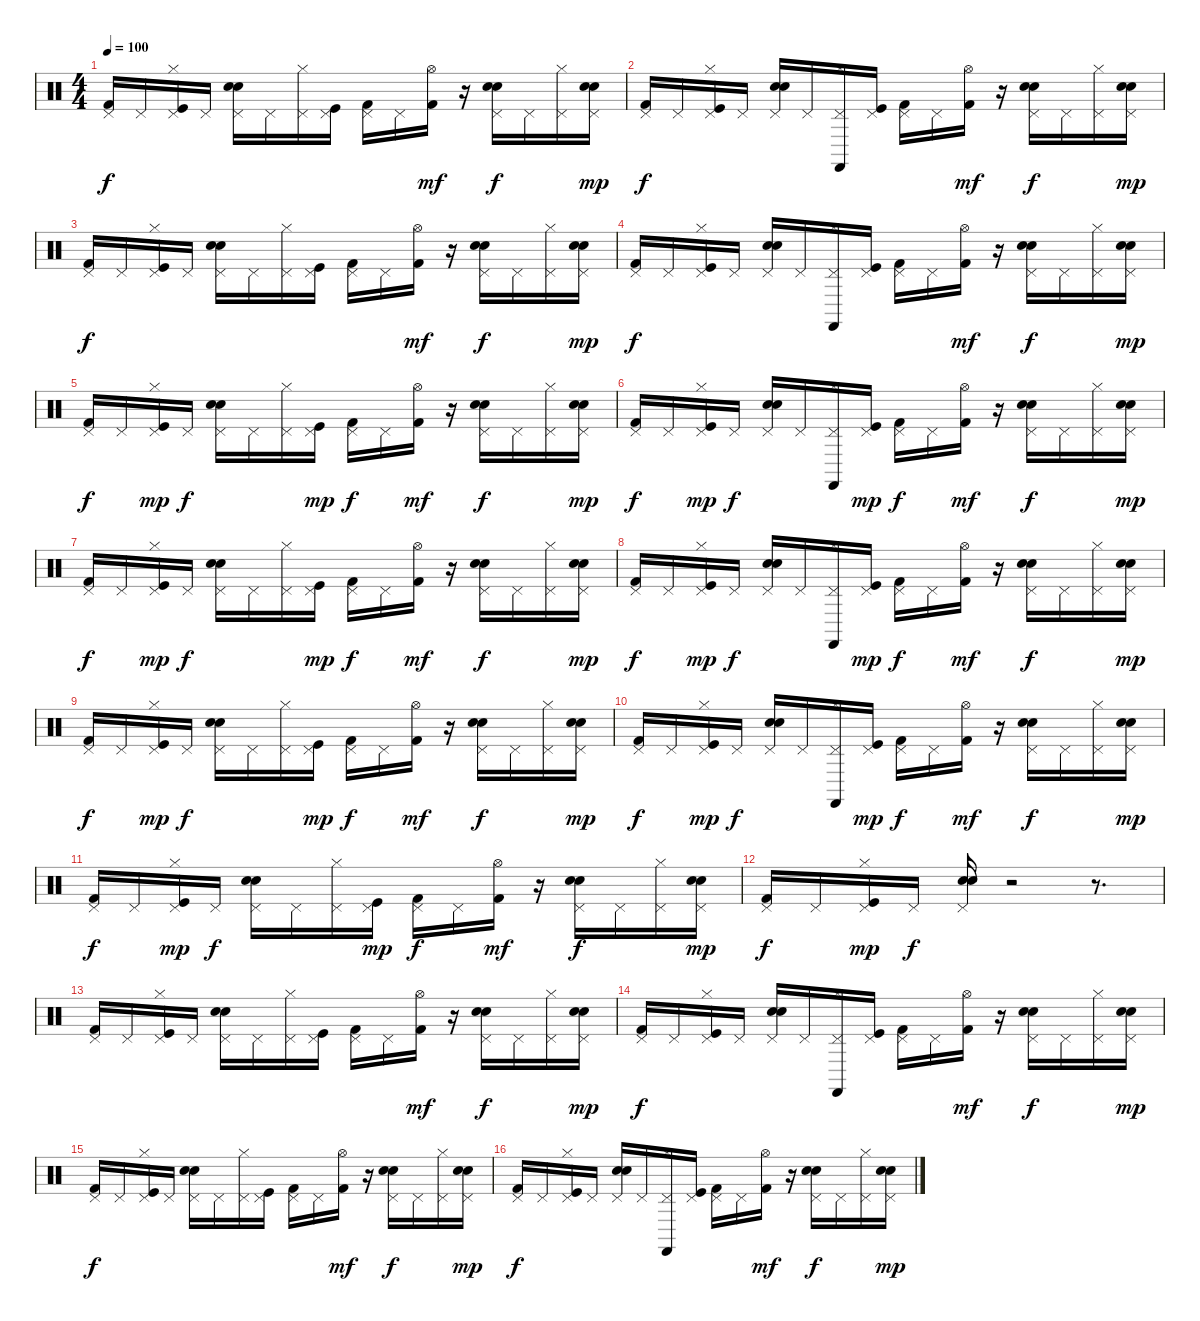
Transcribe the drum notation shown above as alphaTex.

\track "" {instrument percussion}
\staff {score}
\articulation defaults
\ts (4 4)
\tempo 100
\clef neutral
\ks c
("Pedal Hi-Hat (hit)" "Kick (hit) 2").16{dy f} "Pedal Hi-Hat (hit)".16 ("Hi-Hat (closed)" "Pedal Hi-Hat (hit)" "Kick (hit)").16 "Pedal Hi-Hat (hit)".16 ("Snare (hit) 2" "Electric Snare (hit)" "Pedal Hi-Hat (hit)").16 "Pedal Hi-Hat (hit)".16 ("Hi-Hat (closed)" "Pedal Hi-Hat (hit)").16 ("Pedal Hi-Hat (hit)" "Kick (hit)").16 ("Pedal Hi-Hat (hit)" "Kick (hit) 2").16 "Pedal Hi-Hat (hit)".16 ("Hi-Hat (open)" "Kick (hit) 2").16{dy mf} r.16 ("Snare (hit) 2" "Electric Snare (hit)" "Pedal Hi-Hat (hit)").16{dy f} "Pedal Hi-Hat (hit)".16 ("Hi-Hat (closed)" "Pedal Hi-Hat (hit)").16 ("Pedal Hi-Hat (hit)" "Electric Snare (hit)" "Snare (hit) 2").16{dy mp} |
("Pedal Hi-Hat (hit)" "Kick (hit) 2").16{dy f} "Pedal Hi-Hat (hit)".16 ("Hi-Hat (closed)" "Pedal Hi-Hat (hit)" "Kick (hit)").16 "Pedal Hi-Hat (hit)".16 ("Snare (hit) 2" "Electric Snare (hit)" "Pedal Hi-Hat (hit)").16 "Pedal Hi-Hat (hit)".16 ("Castanets (hit)" "Hi-Hat (closed)" "Pedal Hi-Hat (hit)").16 ("Pedal Hi-Hat (hit)" "Kick (hit)").16 ("Pedal Hi-Hat (hit)" "Kick (hit) 2").16 "Pedal Hi-Hat (hit)".16 ("Hi-Hat (open)" "Kick (hit) 2").16{dy mf} r.16 ("Snare (hit) 2" "Electric Snare (hit)" "Pedal Hi-Hat (hit)").16{dy f} "Pedal Hi-Hat (hit)".16 ("Hi-Hat (closed)" "Pedal Hi-Hat (hit)").16 ("Pedal Hi-Hat (hit)" "Snare (hit) 2" "Electric Snare (hit)").16{dy mp} |
("Pedal Hi-Hat (hit)" "Kick (hit) 2").16{dy f} "Pedal Hi-Hat (hit)".16 ("Hi-Hat (closed)" "Pedal Hi-Hat (hit)" "Kick (hit)").16 "Pedal Hi-Hat (hit)".16 ("Snare (hit) 2" "Electric Snare (hit)" "Pedal Hi-Hat (hit)").16 "Pedal Hi-Hat (hit)".16 ("Hi-Hat (closed)" "Pedal Hi-Hat (hit)").16 ("Pedal Hi-Hat (hit)" "Kick (hit)").16 ("Pedal Hi-Hat (hit)" "Kick (hit) 2").16 "Pedal Hi-Hat (hit)".16 ("Hi-Hat (open)" "Kick (hit) 2").16{dy mf} r.16 ("Snare (hit) 2" "Electric Snare (hit)" "Pedal Hi-Hat (hit)").16{dy f} "Pedal Hi-Hat (hit)".16 ("Hi-Hat (closed)" "Pedal Hi-Hat (hit)").16 ("Pedal Hi-Hat (hit)" "Snare (hit) 2" "Electric Snare (hit)").16{dy mp} |
("Pedal Hi-Hat (hit)" "Kick (hit) 2").16{dy f} "Pedal Hi-Hat (hit)".16 ("Hi-Hat (closed)" "Pedal Hi-Hat (hit)" "Kick (hit)").16 "Pedal Hi-Hat (hit)".16 ("Snare (hit) 2" "Electric Snare (hit)" "Pedal Hi-Hat (hit)").16 "Pedal Hi-Hat (hit)".16 ("Castanets (hit)" "Hi-Hat (closed)" "Pedal Hi-Hat (hit)").16 ("Pedal Hi-Hat (hit)" "Kick (hit)").16 ("Pedal Hi-Hat (hit)" "Kick (hit) 2").16 "Pedal Hi-Hat (hit)".16 ("Hi-Hat (open)" "Kick (hit) 2").16{dy mf} r.16 ("Snare (hit) 2" "Electric Snare (hit)" "Pedal Hi-Hat (hit)").16{dy f} "Pedal Hi-Hat (hit)".16 ("Hi-Hat (closed)" "Pedal Hi-Hat (hit)").16 ("Pedal Hi-Hat (hit)" "Snare (hit) 2" "Electric Snare (hit)").16{dy mp} |
("Pedal Hi-Hat (hit)" "Kick (hit) 2").16{dy f} "Pedal Hi-Hat (hit)".16 ("Hi-Hat (closed)" "Pedal Hi-Hat (hit)" "Kick (hit)").16{dy mp} "Pedal Hi-Hat (hit)".16{dy f} ("Snare (hit) 2" "Electric Snare (hit)" "Pedal Hi-Hat (hit)").16 "Pedal Hi-Hat (hit)".16 ("Hi-Hat (closed)" "Pedal Hi-Hat (hit)").16 ("Pedal Hi-Hat (hit)" "Kick (hit)").16{dy mp} ("Pedal Hi-Hat (hit)" "Kick (hit) 2").16{dy f} "Pedal Hi-Hat (hit)".16 ("Hi-Hat (open)" "Kick (hit) 2").16{dy mf} r.16 ("Snare (hit) 2" "Electric Snare (hit)" "Pedal Hi-Hat (hit)").16{dy f} "Pedal Hi-Hat (hit)".16 ("Hi-Hat (closed)" "Pedal Hi-Hat (hit)").16 ("Pedal Hi-Hat (hit)" "Electric Snare (hit)" "Snare (hit) 2").16{dy mp} |
("Pedal Hi-Hat (hit)" "Kick (hit) 2").16{dy f} "Pedal Hi-Hat (hit)".16 ("Hi-Hat (closed)" "Pedal Hi-Hat (hit)" "Kick (hit)").16{dy mp} "Pedal Hi-Hat (hit)".16{dy f} ("Snare (hit) 2" "Electric Snare (hit)" "Pedal Hi-Hat (hit)").16 "Pedal Hi-Hat (hit)".16 ("Castanets (hit)" "Hi-Hat (closed)" "Pedal Hi-Hat (hit)").16 ("Pedal Hi-Hat (hit)" "Kick (hit)").16{dy mp} ("Pedal Hi-Hat (hit)" "Kick (hit) 2").16{dy f} "Pedal Hi-Hat (hit)".16 ("Hi-Hat (open)" "Kick (hit) 2").16{dy mf} r.16 ("Snare (hit) 2" "Electric Snare (hit)" "Pedal Hi-Hat (hit)").16{dy f} "Pedal Hi-Hat (hit)".16 ("Hi-Hat (closed)" "Pedal Hi-Hat (hit)").16 ("Pedal Hi-Hat (hit)" "Snare (hit) 2" "Electric Snare (hit)").16{dy mp} |
("Pedal Hi-Hat (hit)" "Kick (hit) 2").16{dy f} "Pedal Hi-Hat (hit)".16 ("Hi-Hat (closed)" "Pedal Hi-Hat (hit)" "Kick (hit)").16{dy mp} "Pedal Hi-Hat (hit)".16{dy f} ("Snare (hit) 2" "Electric Snare (hit)" "Pedal Hi-Hat (hit)").16 "Pedal Hi-Hat (hit)".16 ("Hi-Hat (closed)" "Pedal Hi-Hat (hit)").16 ("Pedal Hi-Hat (hit)" "Kick (hit)").16{dy mp} ("Pedal Hi-Hat (hit)" "Kick (hit) 2").16{dy f} "Pedal Hi-Hat (hit)".16 ("Hi-Hat (open)" "Kick (hit) 2").16{dy mf} r.16 ("Snare (hit) 2" "Electric Snare (hit)" "Pedal Hi-Hat (hit)").16{dy f} "Pedal Hi-Hat (hit)".16 ("Hi-Hat (closed)" "Pedal Hi-Hat (hit)").16 ("Pedal Hi-Hat (hit)" "Electric Snare (hit)" "Snare (hit) 2").16{dy mp} |
("Pedal Hi-Hat (hit)" "Kick (hit) 2").16{dy f} "Pedal Hi-Hat (hit)".16 ("Hi-Hat (closed)" "Pedal Hi-Hat (hit)" "Kick (hit)").16{dy mp} "Pedal Hi-Hat (hit)".16{dy f} ("Snare (hit) 2" "Electric Snare (hit)" "Pedal Hi-Hat (hit)").16 "Pedal Hi-Hat (hit)".16 ("Castanets (hit)" "Hi-Hat (closed)" "Pedal Hi-Hat (hit)").16 ("Pedal Hi-Hat (hit)" "Kick (hit)").16{dy mp} ("Pedal Hi-Hat (hit)" "Kick (hit) 2").16{dy f} "Pedal Hi-Hat (hit)".16 ("Hi-Hat (open)" "Kick (hit) 2").16{dy mf} r.16 ("Snare (hit) 2" "Electric Snare (hit)" "Pedal Hi-Hat (hit)").16{dy f} "Pedal Hi-Hat (hit)".16 ("Hi-Hat (closed)" "Pedal Hi-Hat (hit)").16 ("Pedal Hi-Hat (hit)" "Snare (hit) 2" "Electric Snare (hit)").16{dy mp} |
("Pedal Hi-Hat (hit)" "Kick (hit) 2").16{dy f} "Pedal Hi-Hat (hit)".16 ("Hi-Hat (closed)" "Pedal Hi-Hat (hit)" "Kick (hit)").16{dy mp} "Pedal Hi-Hat (hit)".16{dy f} ("Snare (hit) 2" "Electric Snare (hit)" "Pedal Hi-Hat (hit)").16 "Pedal Hi-Hat (hit)".16 ("Hi-Hat (closed)" "Pedal Hi-Hat (hit)").16 ("Pedal Hi-Hat (hit)" "Kick (hit)").16{dy mp} ("Pedal Hi-Hat (hit)" "Kick (hit) 2").16{dy f} "Pedal Hi-Hat (hit)".16 ("Hi-Hat (open)" "Kick (hit) 2").16{dy mf} r.16 ("Snare (hit) 2" "Electric Snare (hit)" "Pedal Hi-Hat (hit)").16{dy f} "Pedal Hi-Hat (hit)".16 ("Hi-Hat (closed)" "Pedal Hi-Hat (hit)").16 ("Pedal Hi-Hat (hit)" "Electric Snare (hit)" "Snare (hit) 2").16{dy mp} |
("Pedal Hi-Hat (hit)" "Kick (hit) 2").16{dy f} "Pedal Hi-Hat (hit)".16 ("Hi-Hat (closed)" "Pedal Hi-Hat (hit)" "Kick (hit)").16{dy mp} "Pedal Hi-Hat (hit)".16{dy f} ("Snare (hit) 2" "Electric Snare (hit)" "Pedal Hi-Hat (hit)").16 "Pedal Hi-Hat (hit)".16 ("Castanets (hit)" "Hi-Hat (closed)" "Pedal Hi-Hat (hit)").16 ("Pedal Hi-Hat (hit)" "Kick (hit)").16{dy mp} ("Pedal Hi-Hat (hit)" "Kick (hit) 2").16{dy f} "Pedal Hi-Hat (hit)".16 ("Hi-Hat (open)" "Kick (hit) 2").16{dy mf} r.16 ("Snare (hit) 2" "Electric Snare (hit)" "Pedal Hi-Hat (hit)").16{dy f} "Pedal Hi-Hat (hit)".16 ("Hi-Hat (closed)" "Pedal Hi-Hat (hit)").16 ("Pedal Hi-Hat (hit)" "Snare (hit) 2" "Electric Snare (hit)").16{dy mp} |
("Pedal Hi-Hat (hit)" "Kick (hit) 2").16{dy f} "Pedal Hi-Hat (hit)".16 ("Hi-Hat (closed)" "Pedal Hi-Hat (hit)" "Kick (hit)").16{dy mp} "Pedal Hi-Hat (hit)".16{dy f} ("Snare (hit) 2" "Electric Snare (hit)" "Pedal Hi-Hat (hit)").16 "Pedal Hi-Hat (hit)".16 ("Hi-Hat (closed)" "Pedal Hi-Hat (hit)").16 ("Pedal Hi-Hat (hit)" "Kick (hit)").16{dy mp} ("Pedal Hi-Hat (hit)" "Kick (hit) 2").16{dy f} "Pedal Hi-Hat (hit)".16 ("Hi-Hat (open)" "Kick (hit) 2").16{dy mf} r.16 ("Snare (hit) 2" "Electric Snare (hit)" "Pedal Hi-Hat (hit)").16{dy f} "Pedal Hi-Hat (hit)".16 ("Hi-Hat (closed)" "Pedal Hi-Hat (hit)").16 ("Pedal Hi-Hat (hit)" "Electric Snare (hit)" "Snare (hit) 2").16{dy mp} |
("Pedal Hi-Hat (hit)" "Kick (hit) 2").16{dy f} "Pedal Hi-Hat (hit)".16 ("Hi-Hat (closed)" "Pedal Hi-Hat (hit)" "Kick (hit)").16{dy mp} "Pedal Hi-Hat (hit)".16{dy f} ("Snare (hit) 2" "Electric Snare (hit)" "Pedal Hi-Hat (hit)").16 r.2 r.8{d} |
("Pedal Hi-Hat (hit)" "Kick (hit) 2").16 "Pedal Hi-Hat (hit)".16 ("Hi-Hat (closed)" "Pedal Hi-Hat (hit)" "Kick (hit)").16 "Pedal Hi-Hat (hit)".16 ("Snare (hit) 2" "Electric Snare (hit)" "Pedal Hi-Hat (hit)").16 "Pedal Hi-Hat (hit)".16 ("Hi-Hat (closed)" "Pedal Hi-Hat (hit)").16 ("Pedal Hi-Hat (hit)" "Kick (hit)").16 ("Pedal Hi-Hat (hit)" "Kick (hit) 2").16 "Pedal Hi-Hat (hit)".16 ("Hi-Hat (open)" "Kick (hit) 2").16{dy mf} r.16 ("Snare (hit) 2" "Electric Snare (hit)" "Pedal Hi-Hat (hit)").16{dy f} "Pedal Hi-Hat (hit)".16 ("Hi-Hat (closed)" "Pedal Hi-Hat (hit)").16 ("Pedal Hi-Hat (hit)" "Electric Snare (hit)" "Snare (hit) 2").16{dy mp} |
("Pedal Hi-Hat (hit)" "Kick (hit) 2").16{dy f} "Pedal Hi-Hat (hit)".16 ("Hi-Hat (closed)" "Pedal Hi-Hat (hit)" "Kick (hit)").16 "Pedal Hi-Hat (hit)".16 ("Snare (hit) 2" "Electric Snare (hit)" "Pedal Hi-Hat (hit)").16 "Pedal Hi-Hat (hit)".16 ("Castanets (hit)" "Hi-Hat (closed)" "Pedal Hi-Hat (hit)").16 ("Pedal Hi-Hat (hit)" "Kick (hit)").16 ("Pedal Hi-Hat (hit)" "Kick (hit) 2").16 "Pedal Hi-Hat (hit)".16 ("Hi-Hat (open)" "Kick (hit) 2").16{dy mf} r.16 ("Snare (hit) 2" "Electric Snare (hit)" "Pedal Hi-Hat (hit)").16{dy f} "Pedal Hi-Hat (hit)".16 ("Hi-Hat (closed)" "Pedal Hi-Hat (hit)").16 ("Pedal Hi-Hat (hit)" "Snare (hit) 2" "Electric Snare (hit)").16{dy mp} |
("Pedal Hi-Hat (hit)" "Kick (hit) 2").16{dy f} "Pedal Hi-Hat (hit)".16 ("Hi-Hat (closed)" "Pedal Hi-Hat (hit)" "Kick (hit)").16 "Pedal Hi-Hat (hit)".16 ("Snare (hit) 2" "Electric Snare (hit)" "Pedal Hi-Hat (hit)").16 "Pedal Hi-Hat (hit)".16 ("Hi-Hat (closed)" "Pedal Hi-Hat (hit)").16 ("Pedal Hi-Hat (hit)" "Kick (hit)").16 ("Pedal Hi-Hat (hit)" "Kick (hit) 2").16 "Pedal Hi-Hat (hit)".16 ("Hi-Hat (open)" "Kick (hit) 2").16{dy mf} r.16 ("Snare (hit) 2" "Electric Snare (hit)" "Pedal Hi-Hat (hit)").16{dy f} "Pedal Hi-Hat (hit)".16 ("Hi-Hat (closed)" "Pedal Hi-Hat (hit)").16 ("Pedal Hi-Hat (hit)" "Snare (hit) 2" "Electric Snare (hit)").16{dy mp} |
("Pedal Hi-Hat (hit)" "Kick (hit) 2").16{dy f} "Pedal Hi-Hat (hit)".16 ("Hi-Hat (closed)" "Pedal Hi-Hat (hit)" "Kick (hit)").16 "Pedal Hi-Hat (hit)".16 ("Snare (hit) 2" "Electric Snare (hit)" "Pedal Hi-Hat (hit)").16 "Pedal Hi-Hat (hit)".16 ("Castanets (hit)" "Hi-Hat (closed)" "Pedal Hi-Hat (hit)").16 ("Pedal Hi-Hat (hit)" "Kick (hit)").16 ("Pedal Hi-Hat (hit)" "Kick (hit) 2").16 "Pedal Hi-Hat (hit)".16 ("Hi-Hat (open)" "Kick (hit) 2").16{dy mf} r.16 ("Snare (hit) 2" "Electric Snare (hit)" "Pedal Hi-Hat (hit)").16{dy f} "Pedal Hi-Hat (hit)".16 ("Hi-Hat (closed)" "Pedal Hi-Hat (hit)").16 ("Pedal Hi-Hat (hit)" "Snare (hit) 2" "Electric Snare (hit)").16{dy mp}
